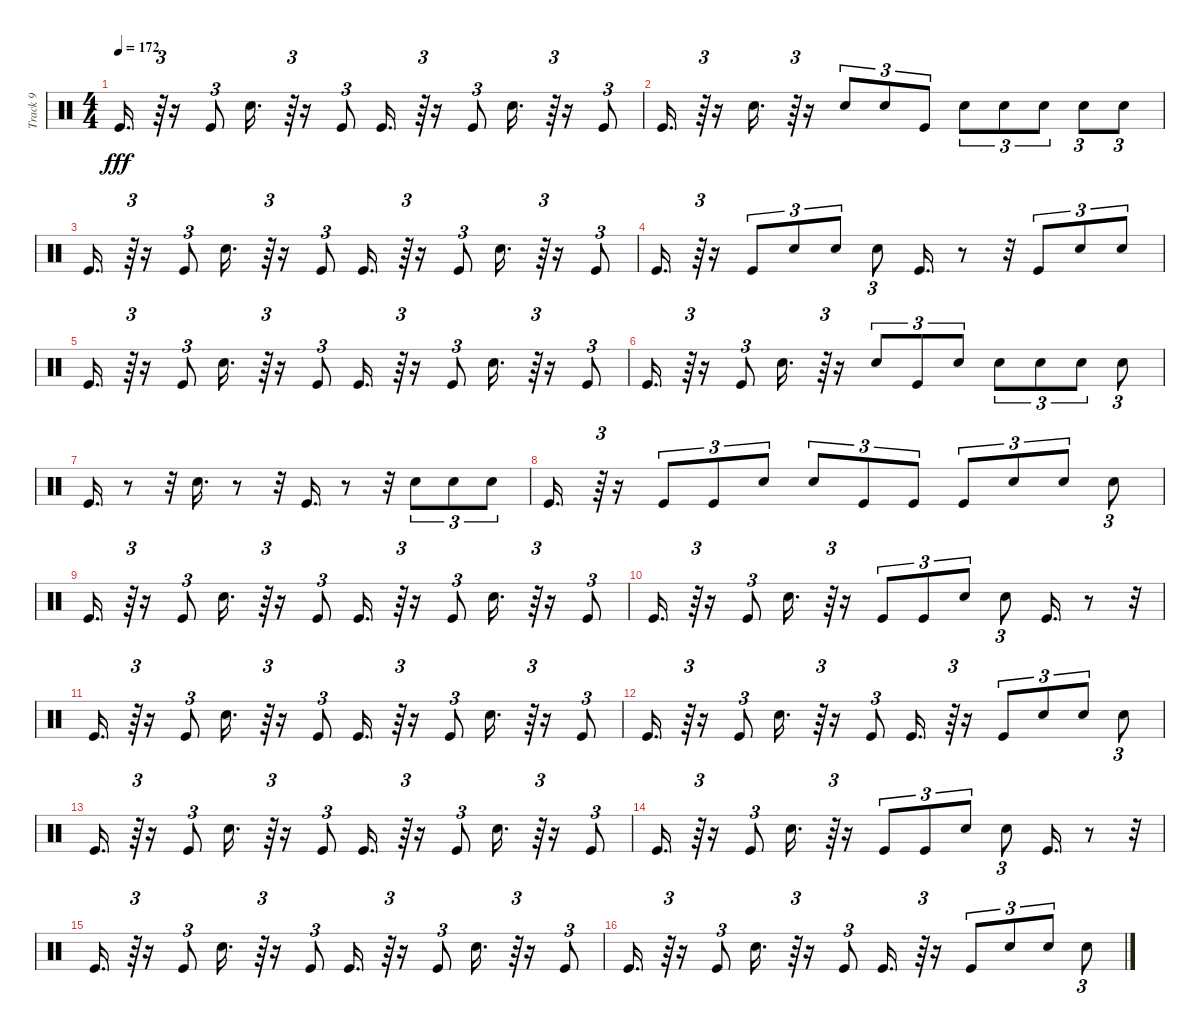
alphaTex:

\track ("Track 9" "Track 9") {instrument percussion}
\staff {score}
\articulation defaults
\ts (4 4)
\tempo 172
\clef neutral
\ks c "Kick (hit)".16{d dy fff}
r.64{tu (3 2)} r.16 "Kick (hit)".8{tu (3 2)} "Snare (hit) 2".16{d} r.64{tu (3 2)} r.16 "Kick (hit)".8{tu (3 2)} "Kick (hit)".16{d} r.64{tu (3 2)} r.16 "Kick (hit)".8{tu (3 2)} "Snare (hit) 2".16{d} r.64{tu (3 2)} r.16 "Kick (hit)".8{tu (3 2)} |
"Kick (hit)".16{d} r.64{tu (3 2)} r.16 "Snare (hit) 2".16{d} r.64{tu (3 2)} r.16 "Snare (hit) 2".8{tu (3 2)} "Snare (hit) 2".8{tu (3 2)} "Kick (hit)".8{tu (3 2)} "Snare (hit) 2".8{tu (3 2)} "Snare (hit) 2".8{tu (3 2)} "Snare (hit) 2".8{tu (3 2)} "Snare (hit) 2".8{tu (3 2)} "Snare (hit) 2".8{tu (3 2)} |
"Kick (hit)".16{d} r.64{tu (3 2)} r.16 "Kick (hit)".8{tu (3 2)} "Snare (hit) 2".16{d} r.64{tu (3 2)} r.16 "Kick (hit)".8{tu (3 2)} "Kick (hit)".16{d} r.64{tu (3 2)} r.16 "Kick (hit)".8{tu (3 2)} "Snare (hit) 2".16{d} r.64{tu (3 2)} r.16 "Kick (hit)".8{tu (3 2)} |
"Kick (hit)".16{d} r.64{tu (3 2)} r.16 "Kick (hit)".8{tu (3 2)} "Snare (hit) 2".8{tu (3 2)} "Snare (hit) 2".8{tu (3 2)} "Snare (hit) 2".8{tu (3 2)} "Kick (hit)".16{d} r.8 r.32 "Kick (hit)".8{tu (3 2)} "Snare (hit) 2".8{tu (3 2)} "Snare (hit) 2".8{tu (3 2)} |
"Kick (hit)".16{d} r.64{tu (3 2)} r.16 "Kick (hit)".8{tu (3 2)} "Snare (hit) 2".16{d} r.64{tu (3 2)} r.16 "Kick (hit)".8{tu (3 2)} "Kick (hit)".16{d} r.64{tu (3 2)} r.16 "Kick (hit)".8{tu (3 2)} "Snare (hit) 2".16{d} r.64{tu (3 2)} r.16 "Kick (hit)".8{tu (3 2)} |
"Kick (hit)".16{d} r.64{tu (3 2)} r.16 "Kick (hit)".8{tu (3 2)} "Snare (hit) 2".16{d} r.64{tu (3 2)} r.16 "Snare (hit) 2".8{tu (3 2)} "Kick (hit)".8{tu (3 2)} "Snare (hit) 2".8{tu (3 2)} "Snare (hit) 2".8{tu (3 2)} "Snare (hit) 2".8{tu (3 2)} "Snare (hit) 2".8{tu (3 2)} "Snare (hit) 2".8{tu (3 2)} |
"Kick (hit)".16{d} r.8 r.32 "Snare (hit) 2".16{d} r.8 r.32 "Kick (hit)".16{d} r.8 r.32 "Snare (hit) 2".8{tu (3 2)} "Snare (hit) 2".8{tu (3 2)} "Snare (hit) 2".8{tu (3 2)} |
"Kick (hit)".16{d} r.64{tu (3 2)} r.16 "Kick (hit)".8{tu (3 2)} "Kick (hit)".8{tu (3 2)} "Snare (hit) 2".8{tu (3 2)} "Snare (hit) 2".8{tu (3 2)} "Kick (hit)".8{tu (3 2)} "Kick (hit)".8{tu (3 2)} "Kick (hit)".8{tu (3 2)} "Snare (hit) 2".8{tu (3 2)} "Snare (hit) 2".8{tu (3 2)} "Snare (hit) 2".8{tu (3 2)} |
"Kick (hit)".16{d} r.64{tu (3 2)} r.16 "Kick (hit)".8{tu (3 2)} "Snare (hit) 2".16{d} r.64{tu (3 2)} r.16 "Kick (hit)".8{tu (3 2)} "Kick (hit)".16{d} r.64{tu (3 2)} r.16 "Kick (hit)".8{tu (3 2)} "Snare (hit) 2".16{d} r.64{tu (3 2)} r.16 "Kick (hit)".8{tu (3 2)} |
"Kick (hit)".16{d} r.64{tu (3 2)} r.16 "Kick (hit)".8{tu (3 2)} "Snare (hit) 2".16{d} r.64{tu (3 2)} r.16 "Kick (hit)".8{tu (3 2)} "Kick (hit)".8{tu (3 2)} "Snare (hit) 2".8{tu (3 2)} "Snare (hit) 2".8{tu (3 2)} "Kick (hit)".16{d} r.8 r.32 |
"Kick (hit)".16{d} r.64{tu (3 2)} r.16 "Kick (hit)".8{tu (3 2)} "Snare (hit) 2".16{d} r.64{tu (3 2)} r.16 "Kick (hit)".8{tu (3 2)} "Kick (hit)".16{d} r.64{tu (3 2)} r.16 "Kick (hit)".8{tu (3 2)} "Snare (hit) 2".16{d} r.64{tu (3 2)} r.16 "Kick (hit)".8{tu (3 2)} |
"Kick (hit)".16{d} r.64{tu (3 2)} r.16 "Kick (hit)".8{tu (3 2)} "Snare (hit) 2".16{d} r.64{tu (3 2)} r.16 "Kick (hit)".8{tu (3 2)} "Kick (hit)".16{d} r.64{tu (3 2)} r.16 "Kick (hit)".8{tu (3 2)} "Snare (hit) 2".8{tu (3 2)} "Snare (hit) 2".8{tu (3 2)} "Snare (hit) 2".8{tu (3 2)} |
"Kick (hit)".16{d} r.64{tu (3 2)} r.16 "Kick (hit)".8{tu (3 2)} "Snare (hit) 2".16{d} r.64{tu (3 2)} r.16 "Kick (hit)".8{tu (3 2)} "Kick (hit)".16{d} r.64{tu (3 2)} r.16 "Kick (hit)".8{tu (3 2)} "Snare (hit) 2".16{d} r.64{tu (3 2)} r.16 "Kick (hit)".8{tu (3 2)} |
"Kick (hit)".16{d} r.64{tu (3 2)} r.16 "Kick (hit)".8{tu (3 2)} "Snare (hit) 2".16{d} r.64{tu (3 2)} r.16 "Kick (hit)".8{tu (3 2)} "Kick (hit)".8{tu (3 2)} "Snare (hit) 2".8{tu (3 2)} "Snare (hit) 2".8{tu (3 2)} "Kick (hit)".16{d} r.8 r.32 |
"Kick (hit)".16{d} r.64{tu (3 2)} r.16 "Kick (hit)".8{tu (3 2)} "Snare (hit) 2".16{d} r.64{tu (3 2)} r.16 "Kick (hit)".8{tu (3 2)} "Kick (hit)".16{d} r.64{tu (3 2)} r.16 "Kick (hit)".8{tu (3 2)} "Snare (hit) 2".16{d} r.64{tu (3 2)} r.16 "Kick (hit)".8{tu (3 2)} |
"Kick (hit)".16{d} r.64{tu (3 2)} r.16 "Kick (hit)".8{tu (3 2)} "Snare (hit) 2".16{d} r.64{tu (3 2)} r.16 "Kick (hit)".8{tu (3 2)} "Kick (hit)".16{d} r.64{tu (3 2)} r.16 "Kick (hit)".8{tu (3 2)} "Snare (hit) 2".8{tu (3 2)} "Snare (hit) 2".8{tu (3 2)} "Snare (hit) 2".8{tu (3 2)}
